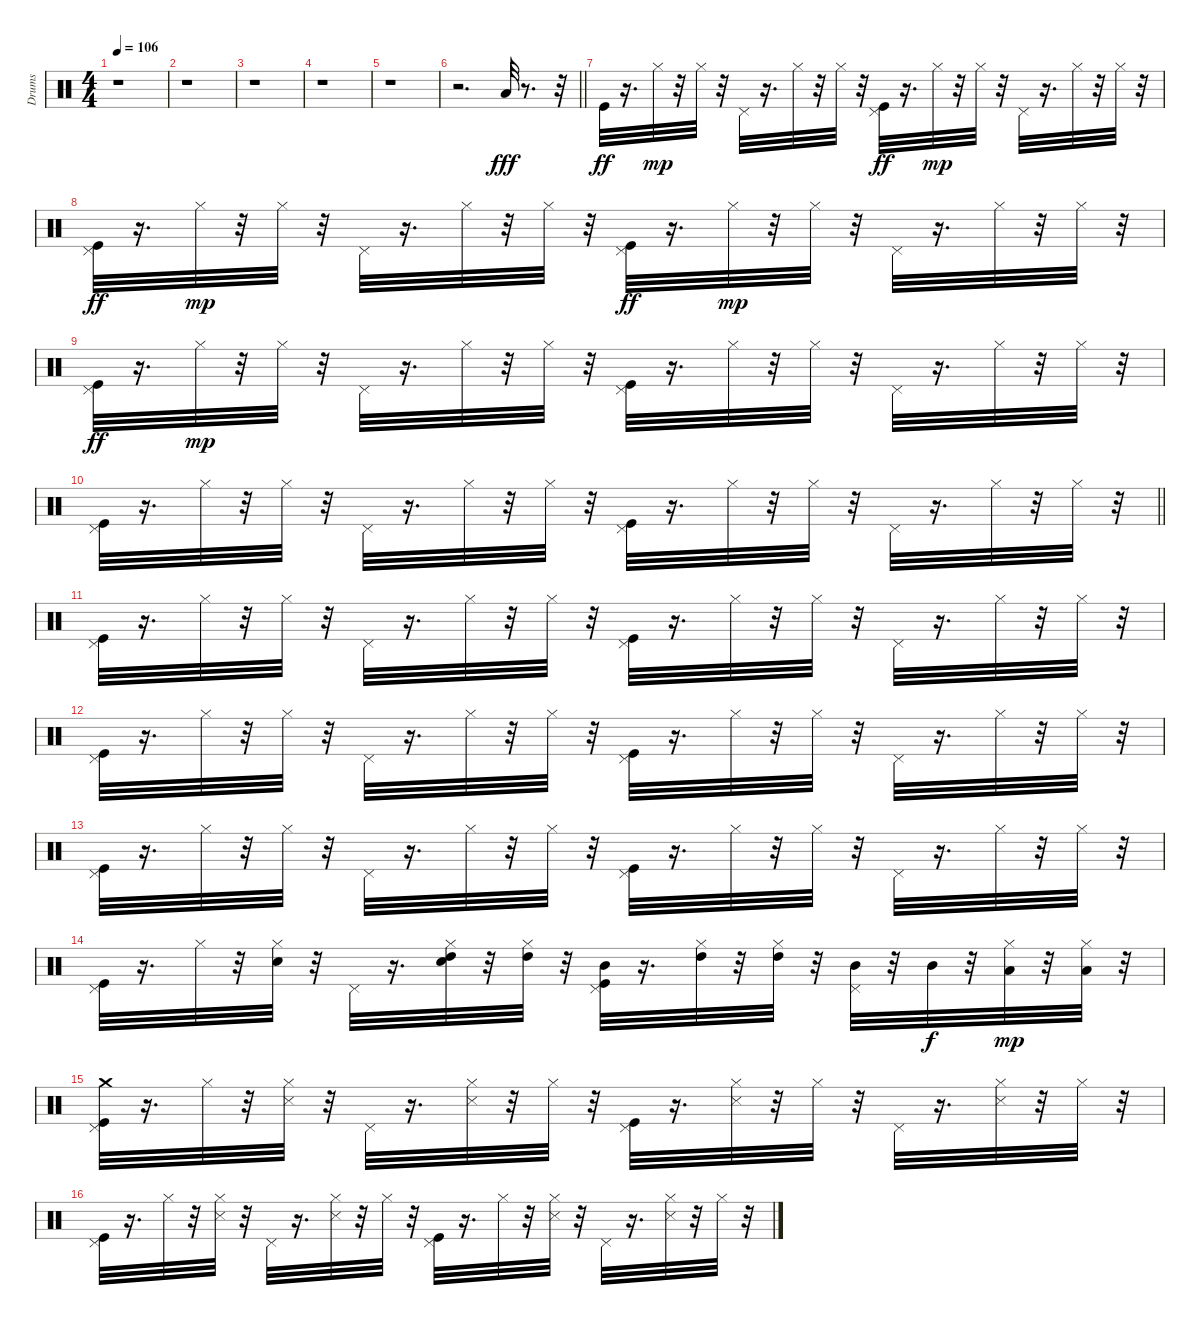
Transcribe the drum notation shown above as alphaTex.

\track ("Drums" "Drums") {instrument percussion}
\staff {score}
\articulation defaults
\ts (4 4)
\tempo 106
\clef neutral
\ks c
r.1{dy f} |
r.1 |
r.1 |
r.1 |
r.1 |
\barLineRight lightlight
r.2{d} "Low Tom (hit)".32{dy fff} r.8{d} r.32 |
"Kick (hit)".32{dy ff} r.16{d} "Hi-Hat (closed)".32{dy mp} r.32 "Hi-Hat (closed)".32 r.32 "Pedal Hi-Hat (hit)".32 r.16{d} "Hi-Hat (closed)".32 r.32 "Hi-Hat (closed)".32 r.32 ("Kick (hit)" "Pedal Hi-Hat (hit)").32{dy ff} r.16{d} "Hi-Hat (closed)".32{dy mp} r.32 "Hi-Hat (closed)".32 r.32 "Pedal Hi-Hat (hit)".32 r.16{d} "Hi-Hat (closed)".32 r.32 "Hi-Hat (closed)".32 r.32 |
("Kick (hit)" "Pedal Hi-Hat (hit)").32{dy ff} r.16{d} "Hi-Hat (closed)".32{dy mp} r.32 "Hi-Hat (closed)".32 r.32 "Pedal Hi-Hat (hit)".32 r.16{d} "Hi-Hat (closed)".32 r.32 "Hi-Hat (closed)".32 r.32 ("Kick (hit)" "Pedal Hi-Hat (hit)").32{dy ff} r.16{d} "Hi-Hat (closed)".32{dy mp} r.32 "Hi-Hat (closed)".32 r.32 "Pedal Hi-Hat (hit)".32 r.16{d} "Hi-Hat (closed)".32 r.32 "Hi-Hat (closed)".32 r.32 |
("Kick (hit)" "Pedal Hi-Hat (hit)").32{dy ff} r.16{d} "Hi-Hat (closed)".32{dy mp} r.32 "Hi-Hat (closed)".32 r.32 "Pedal Hi-Hat (hit)".32 r.16{d} "Hi-Hat (closed)".32 r.32 "Hi-Hat (closed)".32 r.32 ("Kick (hit)" "Pedal Hi-Hat (hit)").32 r.16{d} "Hi-Hat (closed)".32 r.32 "Hi-Hat (closed)".32 r.32 "Pedal Hi-Hat (hit)".32 r.16{d} "Hi-Hat (closed)".32 r.32 "Hi-Hat (closed)".32 r.32 |
\barLineRight lightlight
("Kick (hit)" "Pedal Hi-Hat (hit)").32 r.16{d} "Hi-Hat (closed)".32 r.32 "Hi-Hat (closed)".32 r.32 "Pedal Hi-Hat (hit)".32 r.16{d} "Hi-Hat (closed)".32 r.32 "Hi-Hat (closed)".32 r.32 ("Kick (hit)" "Pedal Hi-Hat (hit)").32 r.16{d} "Hi-Hat (closed)".32 r.32 "Hi-Hat (closed)".32 r.32 "Pedal Hi-Hat (hit)".32 r.16{d} "Hi-Hat (closed)".32 r.32 "Hi-Hat (closed)".32 r.32 |
("Kick (hit)" "Pedal Hi-Hat (hit)").32 r.16{d} "Hi-Hat (closed)".32 r.32 "Hi-Hat (closed)".32 r.32 "Pedal Hi-Hat (hit)".32 r.16{d} "Hi-Hat (closed)".32 r.32 "Hi-Hat (closed)".32 r.32 ("Kick (hit)" "Pedal Hi-Hat (hit)").32 r.16{d} "Hi-Hat (closed)".32 r.32 "Hi-Hat (closed)".32 r.32 "Pedal Hi-Hat (hit)".32 r.16{d} "Hi-Hat (closed)".32 r.32 "Hi-Hat (closed)".32 r.32 |
("Kick (hit)" "Pedal Hi-Hat (hit)").32 r.16{d} "Hi-Hat (closed)".32 r.32 "Hi-Hat (closed)".32 r.32 "Pedal Hi-Hat (hit)".32 r.16{d} "Hi-Hat (closed)".32 r.32 "Hi-Hat (closed)".32 r.32 ("Kick (hit)" "Pedal Hi-Hat (hit)").32 r.16{d} "Hi-Hat (closed)".32 r.32 "Hi-Hat (closed)".32 r.32 "Pedal Hi-Hat (hit)".32 r.16{d} "Hi-Hat (closed)".32 r.32 "Hi-Hat (closed)".32 r.32 |
("Kick (hit)" "Pedal Hi-Hat (hit)").32 r.16{d} "Hi-Hat (closed)".32 r.32 "Hi-Hat (closed)".32 r.32 "Pedal Hi-Hat (hit)".32 r.16{d} "Hi-Hat (closed)".32 r.32 "Hi-Hat (closed)".32 r.32 ("Kick (hit)" "Pedal Hi-Hat (hit)").32 r.16{d} "Hi-Hat (closed)".32 r.32 "Hi-Hat (closed)".32 r.32 "Pedal Hi-Hat (hit)".32 r.16{d} "Hi-Hat (closed)".32 r.32 "Hi-Hat (closed)".32 r.32 |
("Kick (hit)" "Pedal Hi-Hat (hit)").32 r.16{d} "Hi-Hat (closed)".32 r.32 ("Snare (hit) 2" "Hi-Hat (closed)").32 r.32 "Pedal Hi-Hat (hit)".32 r.16{d} ("Snare (hit) 2" "High Tom (hit)" "Hi-Hat (closed)").32 r.32 ("High Tom (hit)" "Hi-Hat (closed)").32 r.32 ("Mid Tom (hit)" "Kick (hit)" "Pedal Hi-Hat (hit)").32 r.16{d} ("High Tom (hit)" "Hi-Hat (closed)").32 r.32 ("High Tom (hit)" "Hi-Hat (closed)").32 r.32 ("Mid Tom (hit)" "Pedal Hi-Hat (hit)").32 r.32 "Mid Tom (hit)".32{dy f} r.32 ("Low Tom (hit)" "Hi-Hat (closed)").32{dy mp} r.32 ("Low Tom (hit)" "Hi-Hat (closed)").32 r.32 |
("Crash medium (hit)" "Kick (hit)" "Pedal Hi-Hat (hit)").32 r.16{d} "Hi-Hat (closed)".32 r.32 ("Snare (side stick) 3" "Hi-Hat (closed)").32 r.32 "Pedal Hi-Hat (hit)".32 r.16{d} ("Snare (side stick) 3" "Hi-Hat (closed)").32 r.32 "Hi-Hat (closed)".32 r.32 ("Kick (hit)" "Pedal Hi-Hat (hit)").32 r.16{d} ("Snare (side stick) 3" "Hi-Hat (closed)").32 r.32 "Hi-Hat (closed)".32 r.32 "Pedal Hi-Hat (hit)".32 r.16{d} ("Snare (side stick) 3" "Hi-Hat (closed)").32 r.32 "Hi-Hat (closed)".32 r.32 |
("Kick (hit)" "Pedal Hi-Hat (hit)").32 r.16{d} "Hi-Hat (closed)".32 r.32 ("Snare (side stick) 3" "Hi-Hat (closed)").32 r.32 "Pedal Hi-Hat (hit)".32 r.16{d} ("Snare (side stick) 3" "Hi-Hat (closed)").32 r.32 "Hi-Hat (closed)".32 r.32 ("Kick (hit)" "Pedal Hi-Hat (hit)").32 r.16{d} "Hi-Hat (closed)".32 r.32 ("Snare (side stick) 3" "Hi-Hat (closed)").32 r.32 "Pedal Hi-Hat (hit)".32 r.16{d} ("Snare (side stick) 3" "Hi-Hat (closed)").32 r.32 "Hi-Hat (closed)".32 r.32
